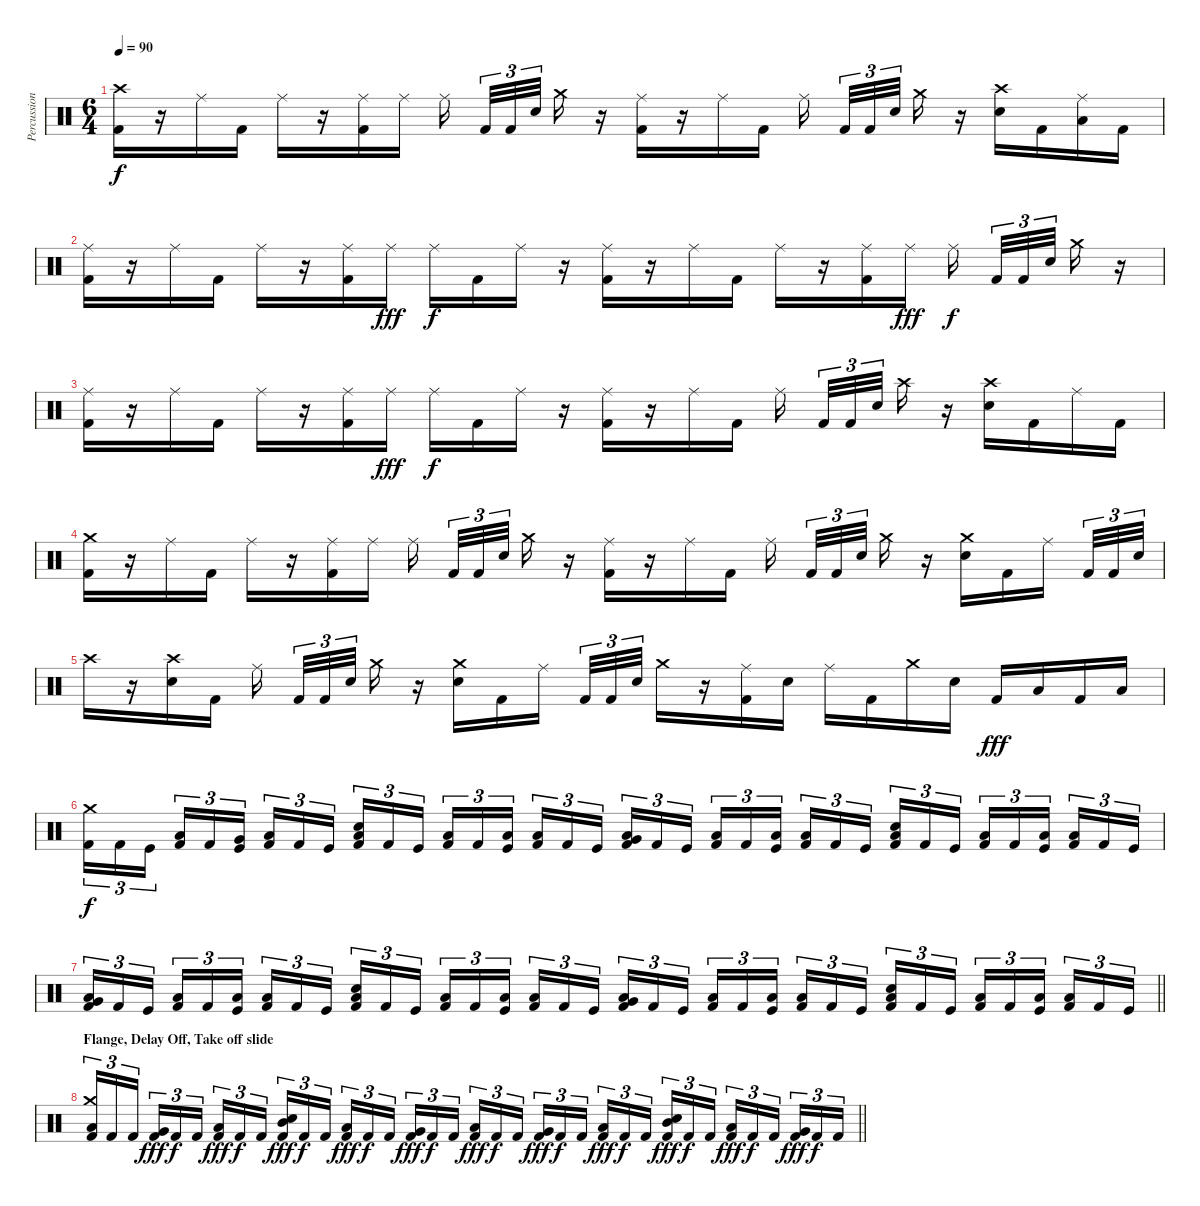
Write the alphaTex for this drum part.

\track ("Percussion" "Percussion") {instrument percussion}
\staff {score}
\articulation defaults
\ts (6 4)
\tempo 90
\clef neutral
\ks c
("Crash high (hit)" "Kick (hit) 2").16{dy f} r.16 "Ride (middle)".16 "Kick (hit) 2".16 "Ride (middle)".16 r.16 ("Ride (middle)" "Kick (hit) 2").16 "Ride (middle)".16 "Ride (middle)".16{beam splitsecondary} "Kick (hit) 2".32{tu (3 2)} "Kick (hit) 2".32{tu (3 2)} "Electric Snare (hit)".32{tu (3 2) beam splitsecondary} "Crash medium (hit)".16 r.16 ("Ride (middle)" "Kick (hit) 2").16 r.16 "Ride (middle)".16 "Kick (hit) 2".16 "Ride (middle)".16{beam splitsecondary} "Kick (hit) 2".32{tu (3 2)} "Kick (hit) 2".32{tu (3 2)} "Electric Snare (hit)".32{tu (3 2) beam splitsecondary} "Crash medium (hit)".16 r.16 ("Crash high (hit)" "Electric Snare (hit)").16 "Kick (hit) 2".16 ("Ride (middle)" "Low Floor Tom (hit)").16 "Kick (hit) 2".16 |
("Ride (middle)" "Kick (hit) 2").16 r.16 "Ride (middle)".16 "Kick (hit) 2".16 "Ride (middle)".16 r.16 ("Ride (middle)" "Kick (hit) 2").16 "Ride (middle)".16{dy fff} "Ride (middle)".16{dy f} "Kick (hit) 2".16 "Ride (middle)".16 r.16 ("Ride (middle)" "Kick (hit) 2").16 r.16 "Ride (middle)".16 "Kick (hit) 2".16 "Ride (middle)".16 r.16 ("Ride (middle)" "Kick (hit) 2").16 "Ride (middle)".16{dy fff} "Ride (middle)".16{dy f beam splitsecondary} "Kick (hit) 2".32{tu (3 2)} "Kick (hit) 2".32{tu (3 2)} "Electric Snare (hit)".32{tu (3 2) beam splitsecondary} "Crash medium (hit)".16 r.16 |
("Ride (middle)" "Kick (hit) 2").16 r.16 "Ride (middle)".16 "Kick (hit) 2".16 "Ride (middle)".16 r.16 ("Ride (middle)" "Kick (hit) 2").16 "Ride (middle)".16{dy fff} "Ride (middle)".16{dy f} "Kick (hit) 2".16 "Ride (middle)".16 r.16 ("Ride (middle)" "Kick (hit) 2").16 r.16 "Ride (middle)".16 "Kick (hit) 2".16 "Ride (middle)".16{beam splitsecondary} "Kick (hit) 2".32{tu (3 2)} "Kick (hit) 2".32{tu (3 2)} "Electric Snare (hit)".32{tu (3 2) beam splitsecondary} "Crash high (hit)".16 r.16 ("Crash high (hit)" "Electric Snare (hit)").16 "Kick (hit) 2".16 "Ride (middle)".16 "Kick (hit) 2".16 |
("Crash medium (hit)" "Kick (hit) 2").16 r.16 "Ride (middle)".16 "Kick (hit) 2".16 "Ride (middle)".16 r.16 ("Ride (middle)" "Kick (hit) 2").16 "Ride (middle)".16 "Ride (middle)".16{beam splitsecondary} "Kick (hit) 2".32{tu (3 2)} "Kick (hit) 2".32{tu (3 2)} "Electric Snare (hit)".32{tu (3 2) beam splitsecondary} "Crash medium (hit)".16 r.16 ("Ride (middle)" "Kick (hit) 2").16 r.16 "Ride (middle)".16 "Kick (hit) 2".16 "Ride (middle)".16{beam splitsecondary} "Kick (hit) 2".32{tu (3 2)} "Kick (hit) 2".32{tu (3 2)} "Electric Snare (hit)".32{tu (3 2) beam splitsecondary} "Crash medium (hit)".16 r.16 ("Crash medium (hit)" "Electric Snare (hit)").16 "Kick (hit) 2".16 "Ride (middle)".16{beam splitsecondary} "Kick (hit) 2".32{tu (3 2)} "Kick (hit) 2".32{tu (3 2)} "Electric Snare (hit)".32{tu (3 2)} |
"Crash high (hit)".16 r.16 ("Crash high (hit)" "Electric Snare (hit)").16 "Kick (hit) 2".16 "Ride (middle)".16{beam splitsecondary} "Kick (hit) 2".32{tu (3 2)} "Kick (hit) 2".32{tu (3 2)} "Electric Snare (hit)".32{tu (3 2) beam splitsecondary} "Crash medium (hit)".16 r.16 ("Crash medium (hit)" "Electric Snare (hit)").16 "Kick (hit) 2".16 "Ride (middle)".16{beam splitsecondary} "Kick (hit) 2".32{tu (3 2)} "Kick (hit) 2".32{tu (3 2)} "Electric Snare (hit)".32{tu (3 2)} "Crash medium (hit)".16 r.16 ("Ride (middle)" "Kick (hit) 2").16 "Electric Snare (hit)".16 "Ride (middle)".16 "Kick (hit) 2".16 "Crash medium (hit)".16 "Electric Snare (hit)".16 "Kick (hit) 2".16{dy fff} "Low Tom (hit)".16 "Kick (hit) 2".16 "Low Floor Tom (hit)".16 |
("Crash medium (hit)" "Kick (hit) 2").16{tu (3 2) dy f} "Kick (hit) 2".16{tu (3 2)} "Kick (hit)".16{tu (3 2) beam splitsecondary} ("Low Floor Tom (hit)" "Kick (hit) 2").16{tu (3 2)} "Kick (hit) 2".16{tu (3 2)} ("Very Low Tom (hit)" "Kick (hit)").16{tu (3 2) beam splitsecondary} ("Low Floor Tom (hit)" "Kick (hit) 2").16{tu (3 2)} "Kick (hit) 2".16{tu (3 2)} "Kick (hit)".16{tu (3 2) beam splitsecondary} ("Low Floor Tom (hit)" "Electric Snare (hit)" "Kick (hit) 2").16{tu (3 2)} "Kick (hit) 2".16{tu (3 2)} "Kick (hit)".16{tu (3 2) beam splitsecondary} ("Low Floor Tom (hit)" "Kick (hit) 2").16{tu (3 2)} "Kick (hit) 2".16{tu (3 2)} ("Low Tom (hit)" "Kick (hit)").16{tu (3 2) beam splitsecondary} ("Low Floor Tom (hit)" "Kick (hit) 2").16{tu (3 2)} "Kick (hit) 2".16{tu (3 2)} "Kick (hit)".16{tu (3 2)} ("Low Floor Tom (hit)" "Very Low Tom (hit)" "Kick (hit) 2").16{tu (3 2)} "Kick (hit) 2".16{tu (3 2)} "Kick (hit)".16{tu (3 2) beam splitsecondary} ("Low Floor Tom (hit)" "Kick (hit) 2").16{tu (3 2)} "Kick (hit) 2".16{tu (3 2)} ("Low Tom (hit)" "Kick (hit)").16{tu (3 2) beam splitsecondary} ("Low Floor Tom (hit)" "Kick (hit) 2").16{tu (3 2)} "Kick (hit) 2".16{tu (3 2)} "Kick (hit)".16{tu (3 2) beam splitsecondary} ("Low Floor Tom (hit)" "Electric Snare (hit)" "Kick (hit) 2").16{tu (3 2)} "Kick (hit) 2".16{tu (3 2)} "Kick (hit)".16{tu (3 2) beam splitsecondary} ("Low Floor Tom (hit)" "Kick (hit) 2").16{tu (3 2)} "Kick (hit) 2".16{tu (3 2)} ("Low Tom (hit)" "Kick (hit)").16{tu (3 2) beam splitsecondary} ("Low Floor Tom (hit)" "Kick (hit) 2").16{tu (3 2)} "Kick (hit) 2".16{tu (3 2)} "Kick (hit)".16{tu (3 2)} |
\barLineRight lightlight
("Low Floor Tom (hit)" "Very Low Tom (hit)" "Kick (hit) 2").16{tu (3 2)} "Kick (hit) 2".16{tu (3 2)} "Kick (hit)".16{tu (3 2) beam splitsecondary} ("Low Floor Tom (hit)" "Kick (hit) 2").16{tu (3 2)} "Kick (hit) 2".16{tu (3 2)} ("Low Tom (hit)" "Kick (hit)").16{tu (3 2) beam splitsecondary} ("Low Floor Tom (hit)" "Kick (hit) 2").16{tu (3 2)} "Kick (hit) 2".16{tu (3 2)} "Kick (hit)".16{tu (3 2) beam splitsecondary} ("Low Floor Tom (hit)" "Electric Snare (hit)" "Kick (hit) 2").16{tu (3 2)} "Kick (hit) 2".16{tu (3 2)} "Kick (hit)".16{tu (3 2) beam splitsecondary} ("Low Floor Tom (hit)" "Kick (hit) 2").16{tu (3 2)} "Kick (hit) 2".16{tu (3 2)} ("Low Tom (hit)" "Kick (hit)").16{tu (3 2) beam splitsecondary} ("Low Floor Tom (hit)" "Kick (hit) 2").16{tu (3 2)} "Kick (hit) 2".16{tu (3 2)} "Kick (hit)".16{tu (3 2)} ("Low Floor Tom (hit)" "Very Low Tom (hit)" "Kick (hit) 2").16{tu (3 2)} "Kick (hit) 2".16{tu (3 2)} "Kick (hit)".16{tu (3 2) beam splitsecondary} ("Low Floor Tom (hit)" "Kick (hit) 2").16{tu (3 2)} "Kick (hit) 2".16{tu (3 2)} ("Low Tom (hit)" "Kick (hit)").16{tu (3 2) beam splitsecondary} ("Low Floor Tom (hit)" "Kick (hit) 2").16{tu (3 2)} "Kick (hit) 2".16{tu (3 2)} "Kick (hit)".16{tu (3 2) beam splitsecondary} ("Low Floor Tom (hit)" "Electric Snare (hit)" "Kick (hit) 2").16{tu (3 2)} "Kick (hit) 2".16{tu (3 2)} "Kick (hit)".16{tu (3 2) beam splitsecondary} ("Low Floor Tom (hit)" "Kick (hit) 2").16{tu (3 2)} "Kick (hit) 2".16{tu (3 2)} ("Low Tom (hit)" "Kick (hit)").16{tu (3 2) beam splitsecondary} ("Low Floor Tom (hit)" "Kick (hit) 2").16{tu (3 2)} "Kick (hit) 2".16{tu (3 2)} "Kick (hit)".16{tu (3 2)} |
\section ("" "Flange, Delay Off, Take off slide")
\barLineRight lightlight
("Crash medium (hit)" "Low Floor Tom (hit)" "Kick (hit) 2").16{tu (3 2)} "Kick (hit) 2".16{tu (3 2)} "Kick (hit) 2".16{tu (3 2) beam splitsecondary} ("Very Low Tom (hit)" "Kick (hit) 2").16{tu (3 2) dy fff} "Kick (hit) 2".16{tu (3 2) dy f} "Kick (hit) 2".16{tu (3 2) beam splitsecondary} ("Low Tom (hit)" "Kick (hit) 2").16{tu (3 2) dy fff} "Kick (hit) 2".16{tu (3 2) dy f} "Kick (hit) 2".16{tu (3 2) beam splitsecondary} ("Mid Tom (hit)" "Electric Snare (hit)" "Kick (hit) 2").16{tu (3 2) dy fff} "Kick (hit) 2".16{tu (3 2) dy f} "Kick (hit) 2".16{tu (3 2) beam splitsecondary} ("Low Tom (hit)" "Kick (hit) 2").16{tu (3 2) dy fff} "Kick (hit) 2".16{tu (3 2) dy f} "Kick (hit) 2".16{tu (3 2) beam splitsecondary} ("Very Low Tom (hit)" "Kick (hit) 2").16{tu (3 2) dy fff} "Kick (hit) 2".16{tu (3 2) dy f} "Kick (hit) 2".16{tu (3 2)} ("Low Floor Tom (hit)" "Kick (hit) 2").16{tu (3 2) dy fff} "Kick (hit) 2".16{tu (3 2) dy f} "Kick (hit) 2".16{tu (3 2) beam splitsecondary} ("Very Low Tom (hit)" "Kick (hit) 2").16{tu (3 2) dy fff} "Kick (hit) 2".16{tu (3 2) dy f} "Kick (hit) 2".16{tu (3 2) beam splitsecondary} ("Low Tom (hit)" "Kick (hit) 2").16{tu (3 2) dy fff} "Kick (hit) 2".16{tu (3 2) dy f} "Kick (hit) 2".16{tu (3 2) beam splitsecondary} ("Mid Tom (hit)" "Electric Snare (hit)" "Kick (hit) 2").16{tu (3 2) dy fff} "Kick (hit) 2".16{tu (3 2) dy f} "Kick (hit) 2".16{tu (3 2) beam splitsecondary} ("Low Tom (hit)" "Kick (hit) 2").16{tu (3 2) dy fff} "Kick (hit) 2".16{tu (3 2) dy f} "Kick (hit) 2".16{tu (3 2) beam splitsecondary} ("Very Low Tom (hit)" "Kick (hit) 2").16{tu (3 2) dy fff} "Kick (hit) 2".16{tu (3 2) dy f} "Kick (hit) 2".16{tu (3 2)}
